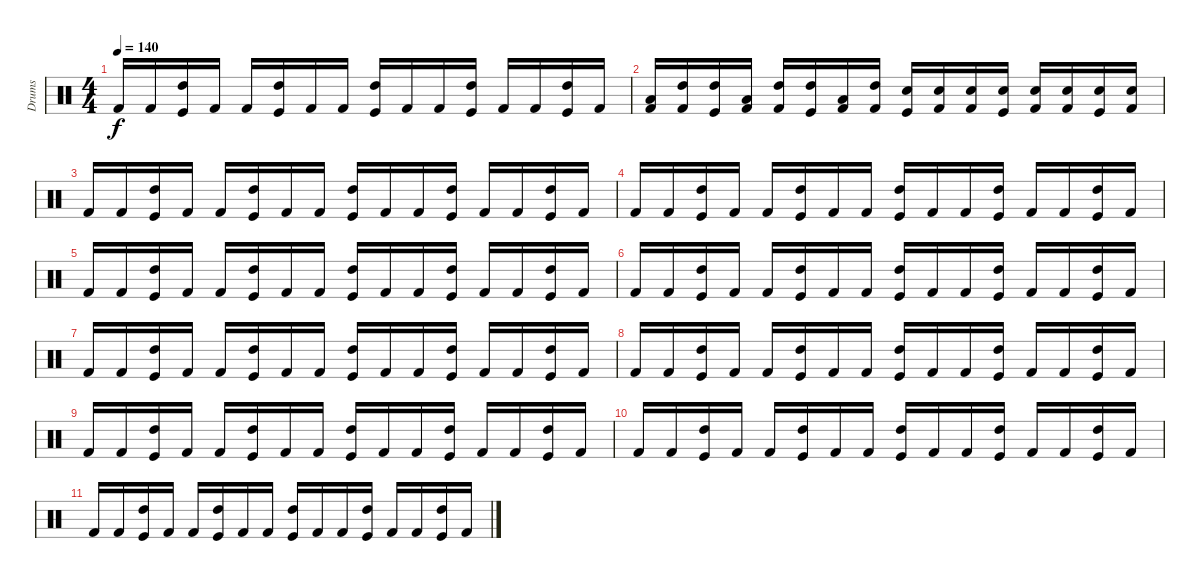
\track ("Drums" "Drums") {instrument percussion}
\staff {score}
\articulation defaults
\ts (4 4)
\tempo 140
\clef neutral
\ks c "Kick (hit) 2".16{dy f} "Kick (hit) 2".16
("Kick (hit)" "High Tom (hit)").16 "Kick (hit) 2".16 "Kick (hit) 2".16 ("Kick (hit)" "High Tom (hit)").16 "Kick (hit) 2".16 "Kick (hit) 2".16 ("Kick (hit)" "High Tom (hit)").16 "Kick (hit) 2".16 "Kick (hit) 2".16 ("Kick (hit)" "High Tom (hit)").16 "Kick (hit) 2".16 "Kick (hit) 2".16 ("Kick (hit)" "High Tom (hit)").16 "Kick (hit) 2".16 |
("Kick (hit) 2" "Low Tom (hit)").16 ("Kick (hit) 2" "High Tom (hit)").16 ("Kick (hit)" "High Tom (hit)").16 ("Kick (hit) 2" "Low Tom (hit)").16 ("Kick (hit) 2" "High Tom (hit)").16 ("Kick (hit)" "High Tom (hit)").16 ("Kick (hit) 2" "Low Tom (hit)").16 ("Kick (hit) 2" "High Tom (hit)").16 ("Kick (hit)" "Snare (hit) 2").16 ("Kick (hit) 2" "Snare (hit) 2").16 ("Kick (hit) 2" "Snare (hit) 2").16 ("Kick (hit)" "Snare (hit) 2").16 ("Kick (hit) 2" "Snare (hit) 2").16 ("Kick (hit) 2" "Snare (hit) 2").16 ("Kick (hit)" "Snare (hit) 2").16 ("Kick (hit) 2" "Snare (hit) 2").16 |
"Kick (hit) 2".16 "Kick (hit) 2".16 ("Kick (hit)" "High Tom (hit)").16 "Kick (hit) 2".16 "Kick (hit) 2".16 ("Kick (hit)" "High Tom (hit)").16 "Kick (hit) 2".16 "Kick (hit) 2".16 ("Kick (hit)" "High Tom (hit)").16 "Kick (hit) 2".16 "Kick (hit) 2".16 ("Kick (hit)" "High Tom (hit)").16 "Kick (hit) 2".16 "Kick (hit) 2".16 ("Kick (hit)" "High Tom (hit)").16 "Kick (hit) 2".16 |
"Kick (hit) 2".16 "Kick (hit) 2".16 ("Kick (hit)" "High Tom (hit)").16 "Kick (hit) 2".16 "Kick (hit) 2".16 ("Kick (hit)" "High Tom (hit)").16 "Kick (hit) 2".16 "Kick (hit) 2".16 ("Kick (hit)" "High Tom (hit)").16 "Kick (hit) 2".16 "Kick (hit) 2".16 ("Kick (hit)" "High Tom (hit)").16 "Kick (hit) 2".16 "Kick (hit) 2".16 ("Kick (hit)" "High Tom (hit)").16 "Kick (hit) 2".16 |
"Kick (hit) 2".16 "Kick (hit) 2".16 ("Kick (hit)" "High Tom (hit)").16 "Kick (hit) 2".16 "Kick (hit) 2".16 ("Kick (hit)" "High Tom (hit)").16 "Kick (hit) 2".16 "Kick (hit) 2".16 ("Kick (hit)" "High Tom (hit)").16 "Kick (hit) 2".16 "Kick (hit) 2".16 ("Kick (hit)" "High Tom (hit)").16 "Kick (hit) 2".16 "Kick (hit) 2".16 ("Kick (hit)" "High Tom (hit)").16 "Kick (hit) 2".16 |
"Kick (hit) 2".16 "Kick (hit) 2".16 ("Kick (hit)" "High Tom (hit)").16 "Kick (hit) 2".16 "Kick (hit) 2".16 ("Kick (hit)" "High Tom (hit)").16 "Kick (hit) 2".16 "Kick (hit) 2".16 ("Kick (hit)" "High Tom (hit)").16 "Kick (hit) 2".16 "Kick (hit) 2".16 ("Kick (hit)" "High Tom (hit)").16 "Kick (hit) 2".16 "Kick (hit) 2".16 ("Kick (hit)" "High Tom (hit)").16 "Kick (hit) 2".16 |
"Kick (hit) 2".16 "Kick (hit) 2".16 ("Kick (hit)" "High Tom (hit)").16 "Kick (hit) 2".16 "Kick (hit) 2".16 ("Kick (hit)" "High Tom (hit)").16 "Kick (hit) 2".16 "Kick (hit) 2".16 ("Kick (hit)" "High Tom (hit)").16 "Kick (hit) 2".16 "Kick (hit) 2".16 ("Kick (hit)" "High Tom (hit)").16 "Kick (hit) 2".16 "Kick (hit) 2".16 ("Kick (hit)" "High Tom (hit)").16 "Kick (hit) 2".16 |
"Kick (hit) 2".16 "Kick (hit) 2".16 ("Kick (hit)" "High Tom (hit)").16 "Kick (hit) 2".16 "Kick (hit) 2".16 ("Kick (hit)" "High Tom (hit)").16 "Kick (hit) 2".16 "Kick (hit) 2".16 ("Kick (hit)" "High Tom (hit)").16 "Kick (hit) 2".16 "Kick (hit) 2".16 ("Kick (hit)" "High Tom (hit)").16 "Kick (hit) 2".16 "Kick (hit) 2".16 ("Kick (hit)" "High Tom (hit)").16 "Kick (hit) 2".16 |
"Kick (hit) 2".16 "Kick (hit) 2".16 ("Kick (hit)" "High Tom (hit)").16 "Kick (hit) 2".16 "Kick (hit) 2".16 ("Kick (hit)" "High Tom (hit)").16 "Kick (hit) 2".16 "Kick (hit) 2".16 ("Kick (hit)" "High Tom (hit)").16 "Kick (hit) 2".16 "Kick (hit) 2".16 ("Kick (hit)" "High Tom (hit)").16 "Kick (hit) 2".16 "Kick (hit) 2".16 ("Kick (hit)" "High Tom (hit)").16 "Kick (hit) 2".16 |
"Kick (hit) 2".16 "Kick (hit) 2".16 ("Kick (hit)" "High Tom (hit)").16 "Kick (hit) 2".16 "Kick (hit) 2".16 ("Kick (hit)" "High Tom (hit)").16 "Kick (hit) 2".16 "Kick (hit) 2".16 ("Kick (hit)" "High Tom (hit)").16 "Kick (hit) 2".16 "Kick (hit) 2".16 ("Kick (hit)" "High Tom (hit)").16 "Kick (hit) 2".16 "Kick (hit) 2".16 ("Kick (hit)" "High Tom (hit)").16 "Kick (hit) 2".16 |
"Kick (hit) 2".16 "Kick (hit) 2".16 ("Kick (hit)" "High Tom (hit)").16 "Kick (hit) 2".16 "Kick (hit) 2".16 ("Kick (hit)" "High Tom (hit)").16 "Kick (hit) 2".16 "Kick (hit) 2".16 ("Kick (hit)" "High Tom (hit)").16 "Kick (hit) 2".16 "Kick (hit) 2".16 ("Kick (hit)" "High Tom (hit)").16 "Kick (hit) 2".16 "Kick (hit) 2".16 ("Kick (hit)" "High Tom (hit)").16 "Kick (hit) 2".16
